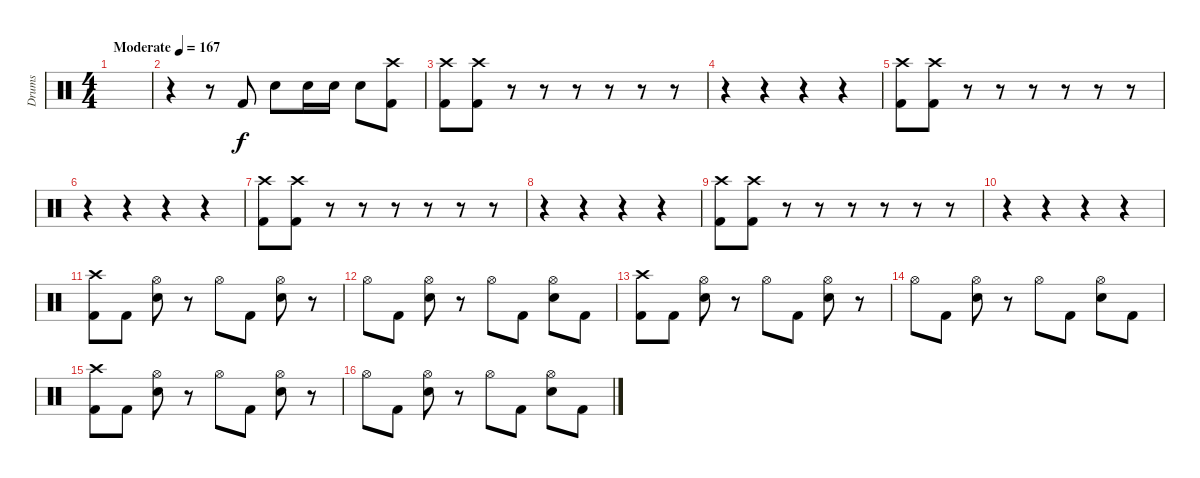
\track ("Drums" "Drums") {instrument percussion}
\staff {score}
\articulation defaults
\ts (4 4)
\tempo (167 "Moderate")
\clef neutral
\ks c
|
r.4 r.8 "Kick (hit) 2".8 "Snare (hit) 2".8 "Snare (hit) 2".16 "Snare (hit) 2".16 "Snare (hit) 2".8 ("Crash high (hit)" "Kick (hit) 2").8 |
("Crash high (hit)" "Kick (hit) 2").8 ("Crash high (hit)" "Kick (hit) 2").8 r.8 r.8 r.8 r.8 r.8 r.8 |
r.4 r.4 r.4 r.4 |
("Crash high (hit)" "Kick (hit) 2").8 ("Crash high (hit)" "Kick (hit) 2").8 r.8 r.8 r.8 r.8 r.8 r.8 |
r.4 r.4 r.4 r.4 |
("Crash high (hit)" "Kick (hit) 2").8 ("Crash high (hit)" "Kick (hit) 2").8 r.8 r.8 r.8 r.8 r.8 r.8 |
r.4 r.4 r.4 r.4 |
("Crash high (hit)" "Kick (hit) 2").8 ("Crash high (hit)" "Kick (hit) 2").8 r.8 r.8 r.8 r.8 r.8 r.8 |
r.4 r.4 r.4 r.4 |
("Crash high (hit)" "Kick (hit) 2").8 "Kick (hit) 2".8 ("Hi-Hat (open)" "Snare (hit) 2").8 r.8 "Hi-Hat (open)".8 "Kick (hit) 2".8 ("Hi-Hat (open)" "Snare (hit) 2").8 r.8 |
"Hi-Hat (open)".8 "Kick (hit) 2".8 ("Hi-Hat (open)" "Snare (hit) 2").8 r.8 "Hi-Hat (open)".8 "Kick (hit) 2".8 ("Hi-Hat (open)" "Snare (hit) 2").8 "Kick (hit) 2".8 |
("Crash high (hit)" "Kick (hit) 2").8 "Kick (hit) 2".8 ("Hi-Hat (open)" "Snare (hit) 2").8 r.8 "Hi-Hat (open)".8 "Kick (hit) 2".8 ("Hi-Hat (open)" "Snare (hit) 2").8 r.8 |
"Hi-Hat (open)".8 "Kick (hit) 2".8 ("Hi-Hat (open)" "Snare (hit) 2").8 r.8 "Hi-Hat (open)".8 "Kick (hit) 2".8 ("Hi-Hat (open)" "Snare (hit) 2").8 "Kick (hit) 2".8 |
("Crash high (hit)" "Kick (hit) 2").8 "Kick (hit) 2".8 ("Hi-Hat (open)" "Snare (hit) 2").8 r.8 "Hi-Hat (open)".8 "Kick (hit) 2".8 ("Hi-Hat (open)" "Snare (hit) 2").8 r.8 |
"Hi-Hat (open)".8 "Kick (hit) 2".8 ("Hi-Hat (open)" "Snare (hit) 2").8 r.8 "Hi-Hat (open)".8 "Kick (hit) 2".8 ("Hi-Hat (open)" "Snare (hit) 2").8 "Kick (hit) 2".8
